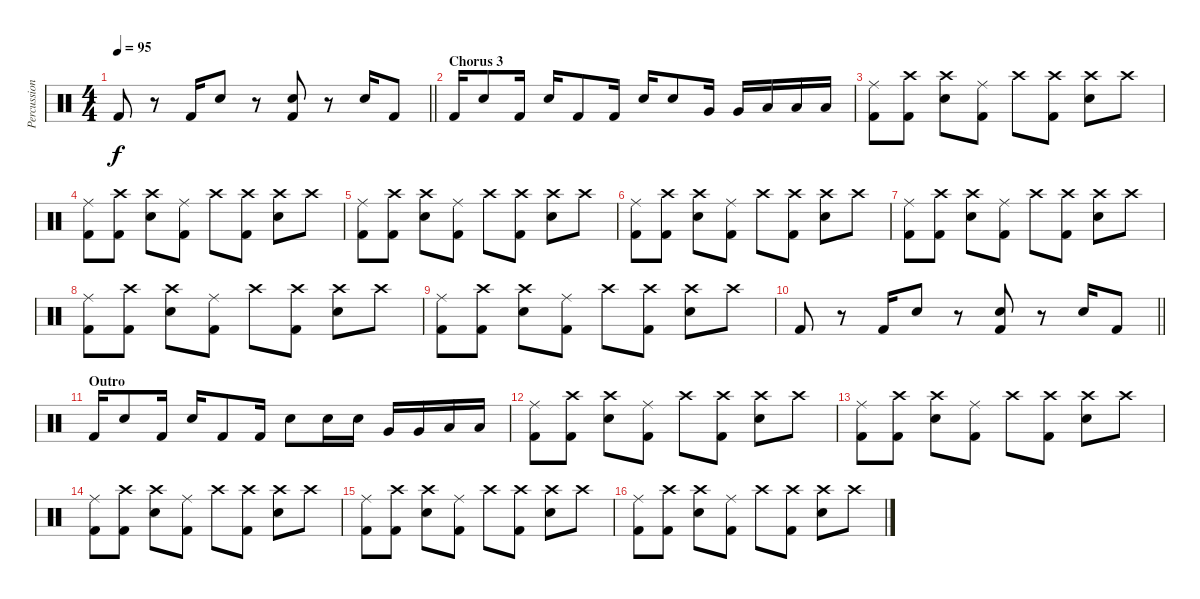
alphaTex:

\track ("Percussion" "Percussion") {instrument percussion}
\staff {score}
\articulation defaults
\ts (4 4)
\tempo 95
\clef neutral
\barLineRight lightlight
\ks c "Kick (hit) 2".8{dy f}
r.8 "Kick (hit) 2".16 "Snare (hit) 2".8 r.8 ("Snare (hit) 2" "Kick (hit) 2").8 r.8 "Snare (hit) 2".16 "Kick (hit) 2".8 |
\section ("" "Chorus 3")
"Kick (hit) 2".16 "Snare (hit) 2".8 "Kick (hit) 2".16 "Snare (hit) 2".16 "Kick (hit) 2".8 "Kick (hit) 2".16 "Snare (hit) 2".16 "Snare (hit) 2".8 "Very Low Tom (hit)".16 "Very Low Tom (hit)".16 "Low Floor Tom (hit)".16 "Low Floor Tom (hit)".16 "Low Floor Tom (hit)".16 |
("Ride (middle)" "Kick (hit) 2").8 ("Crash high (hit)" "Kick (hit) 2").8 ("Crash high (hit)" "Snare (hit) 2").8 ("Ride (middle)" "Kick (hit) 2").8 "Crash high (hit)".8 ("Crash high (hit)" "Kick (hit) 2").8 ("Crash high (hit)" "Snare (hit) 2").8 "Crash high (hit)".8 |
("Ride (middle)" "Kick (hit) 2").8 ("Crash high (hit)" "Kick (hit) 2").8 ("Crash high (hit)" "Snare (hit) 2").8 ("Ride (middle)" "Kick (hit) 2").8 "Crash high (hit)".8 ("Crash high (hit)" "Kick (hit) 2").8 ("Crash high (hit)" "Snare (hit) 2").8 "Crash high (hit)".8 |
("Ride (middle)" "Kick (hit) 2").8 ("Crash high (hit)" "Kick (hit) 2").8 ("Crash high (hit)" "Snare (hit) 2").8 ("Ride (middle)" "Kick (hit) 2").8 "Crash high (hit)".8 ("Crash high (hit)" "Kick (hit) 2").8 ("Crash high (hit)" "Snare (hit) 2").8 "Crash high (hit)".8 |
("Ride (middle)" "Kick (hit) 2").8 ("Crash high (hit)" "Kick (hit) 2").8 ("Crash high (hit)" "Snare (hit) 2").8 ("Ride (middle)" "Kick (hit) 2").8 "Crash high (hit)".8 ("Crash high (hit)" "Kick (hit) 2").8 ("Crash high (hit)" "Snare (hit) 2").8 "Crash high (hit)".8 |
("Ride (middle)" "Kick (hit) 2").8 ("Crash high (hit)" "Kick (hit) 2").8 ("Crash high (hit)" "Snare (hit) 2").8 ("Ride (middle)" "Kick (hit) 2").8 "Crash high (hit)".8 ("Crash high (hit)" "Kick (hit) 2").8 ("Crash high (hit)" "Snare (hit) 2").8 "Crash high (hit)".8 |
("Ride (middle)" "Kick (hit) 2").8 ("Crash high (hit)" "Kick (hit) 2").8 ("Crash high (hit)" "Snare (hit) 2").8 ("Ride (middle)" "Kick (hit) 2").8 "Crash high (hit)".8 ("Crash high (hit)" "Kick (hit) 2").8 ("Crash high (hit)" "Snare (hit) 2").8 "Crash high (hit)".8 |
("Ride (middle)" "Kick (hit) 2").8 ("Crash high (hit)" "Kick (hit) 2").8 ("Crash high (hit)" "Snare (hit) 2").8 ("Ride (middle)" "Kick (hit) 2").8 "Crash high (hit)".8 ("Crash high (hit)" "Kick (hit) 2").8 ("Crash high (hit)" "Snare (hit) 2").8 "Crash high (hit)".8 |
\barLineRight lightlight "Kick (hit) 2".8
r.8 "Kick (hit) 2".16 "Snare (hit) 2".8 r.8 ("Snare (hit) 2" "Kick (hit) 2").8 r.8 "Snare (hit) 2".16 "Kick (hit) 2".8 |
\section ("" "Outro")
"Kick (hit) 2".16 "Snare (hit) 2".8 "Kick (hit) 2".16 "Snare (hit) 2".16 "Kick (hit) 2".8 "Kick (hit) 2".16 "Snare (hit) 2".8 "Snare (hit) 2".16 "Snare (hit) 2".16 "Very Low Tom (hit)".16 "Very Low Tom (hit)".16 "Low Floor Tom (hit)".16 "Low Floor Tom (hit)".16 |
("Ride (middle)" "Kick (hit) 2").8 ("Crash high (hit)" "Kick (hit) 2").8 ("Crash high (hit)" "Snare (hit) 2").8 ("Ride (middle)" "Kick (hit) 2").8 "Crash high (hit)".8 ("Crash high (hit)" "Kick (hit) 2").8 ("Crash high (hit)" "Snare (hit) 2").8 "Crash high (hit)".8 |
("Ride (middle)" "Kick (hit) 2").8 ("Crash high (hit)" "Kick (hit) 2").8 ("Crash high (hit)" "Snare (hit) 2").8 ("Ride (middle)" "Kick (hit) 2").8 "Crash high (hit)".8 ("Crash high (hit)" "Kick (hit) 2").8 ("Crash high (hit)" "Snare (hit) 2").8 "Crash high (hit)".8 |
("Ride (middle)" "Kick (hit) 2").8 ("Crash high (hit)" "Kick (hit) 2").8 ("Crash high (hit)" "Snare (hit) 2").8 ("Ride (middle)" "Kick (hit) 2").8 "Crash high (hit)".8 ("Crash high (hit)" "Kick (hit) 2").8 ("Crash high (hit)" "Snare (hit) 2").8 "Crash high (hit)".8 |
("Ride (middle)" "Kick (hit) 2").8 ("Crash high (hit)" "Kick (hit) 2").8 ("Crash high (hit)" "Snare (hit) 2").8 ("Ride (middle)" "Kick (hit) 2").8 "Crash high (hit)".8 ("Crash high (hit)" "Kick (hit) 2").8 ("Crash high (hit)" "Snare (hit) 2").8 "Crash high (hit)".8 |
("Ride (middle)" "Kick (hit) 2").8 ("Crash high (hit)" "Kick (hit) 2").8 ("Crash high (hit)" "Snare (hit) 2").8 ("Ride (middle)" "Kick (hit) 2").8 "Crash high (hit)".8 ("Crash high (hit)" "Kick (hit) 2").8 ("Crash high (hit)" "Snare (hit) 2").8 "Crash high (hit)".8
